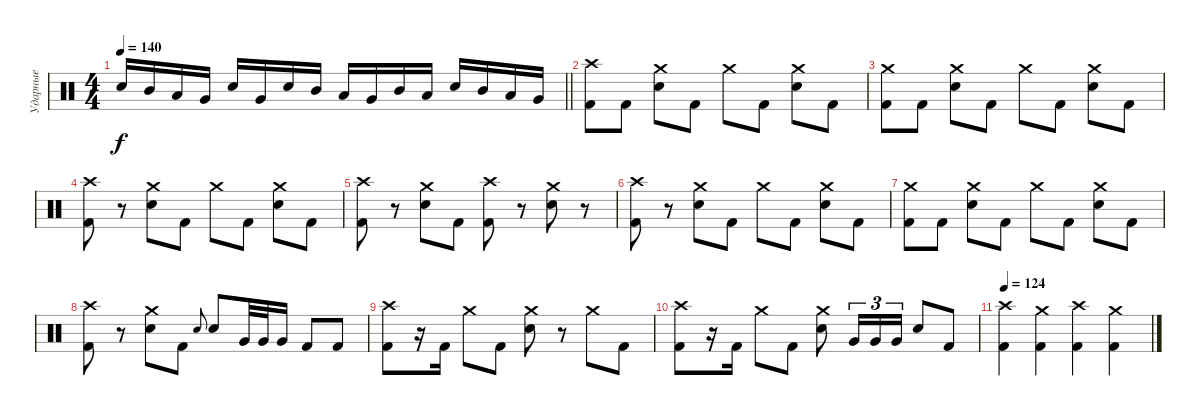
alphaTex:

\track ("Ударные" "Ударные") {instrument percussion}
\staff {score}
\articulation defaults
\ts (4 4)
\tempo 140
\clef neutral
\barLineRight lightlight
\ks c "Snare (hit) 2".16{dy f} "Mid Tom (hit)".16 "Low Tom (hit)".16 "Very Low Tom (hit)".16 "Snare (hit) 2".16 "Very Low Tom (hit)".16 "Snare (hit) 2".16 "Mid Tom (hit)".16 "Low Tom (hit)".16 "Very Low Tom (hit)".16 "Mid Tom (hit)".16 "Low Tom (hit)".16 "Snare (hit) 2".16 "Mid Tom (hit)".16 "Low Tom (hit)".16 "Very Low Tom (hit)".16
|
("Crash high (hit)" "Kick (hit) 2").8 "Kick (hit) 2".8 ("Crash medium (hit)" "Snare (hit) 2").8 "Kick (hit) 2".8 "Crash medium (hit)".8 "Kick (hit) 2".8 ("Crash medium (hit)" "Snare (hit) 2").8 "Kick (hit) 2".8 |
("Crash medium (hit)" "Kick (hit) 2").8 "Kick (hit) 2".8 ("Crash medium (hit)" "Snare (hit) 2").8 "Kick (hit) 2".8 "Crash medium (hit)".8 "Kick (hit) 2".8 ("Crash medium (hit)" "Snare (hit) 2").8 "Kick (hit) 2".8 |
("Crash high (hit)" "Kick (hit) 2").8 r.8 ("Crash medium (hit)" "Snare (hit) 2").8 "Kick (hit) 2".8 "Crash medium (hit)".8 "Kick (hit) 2".8 ("Crash medium (hit)" "Snare (hit) 2").8 "Kick (hit) 2".8 |
("Crash high (hit)" "Kick (hit) 2").8 r.8 ("Crash medium (hit)" "Snare (hit) 2").8 "Kick (hit) 2".8 ("Crash high (hit)" "Kick (hit) 2").8 r.8 ("Crash medium (hit)" "Snare (hit) 2").8 r.8 |
("Crash high (hit)" "Kick (hit) 2").8 r.8 ("Crash medium (hit)" "Snare (hit) 2").8 "Kick (hit) 2".8 "Crash medium (hit)".8 "Kick (hit) 2".8 ("Crash medium (hit)" "Snare (hit) 2").8 "Kick (hit) 2".8 |
("Crash medium (hit)" "Kick (hit) 2").8 "Kick (hit) 2".8 ("Crash medium (hit)" "Snare (hit) 2").8 "Kick (hit) 2".8 "Crash medium (hit)".8 "Kick (hit) 2".8 ("Crash medium (hit)" "Snare (hit) 2").8 "Kick (hit) 2".8 |
("Crash high (hit)" "Kick (hit) 2").8 r.8 ("Crash medium (hit)" "Snare (hit) 2").8 "Kick (hit) 2".8 "Snare (hit) 2".8{gr onbeat} "Snare (hit) 2".8 "Very Low Tom (hit)".32 "Very Low Tom (hit)".32 "Very Low Tom (hit)".16 "Kick (hit) 2".8 "Kick (hit) 2".8 |
("Crash high (hit)" "Kick (hit) 2").8 r.16 "Kick (hit) 2".16 "Crash medium (hit)".8 "Kick (hit) 2".8 ("Crash medium (hit)" "Snare (hit) 2").8 r.8 "Crash medium (hit)".8 "Kick (hit) 2".8 |
("Crash high (hit)" "Kick (hit) 2").8 r.16 "Kick (hit) 2".16 "Crash medium (hit)".8 "Kick (hit) 2".8 ("Crash medium (hit)" "Snare (hit) 2").8 "Very Low Tom (hit)".16{tu (3 2)} "Very Low Tom (hit)".16{tu (3 2)} "Very Low Tom (hit)".16{tu (3 2)} "Snare (hit) 2".8 "Kick (hit) 2".8 |
\tempo 124
("Crash high (hit)" "Kick (hit) 2").4 ("Crash medium (hit)" "Kick (hit) 2").4 ("Crash high (hit)" "Kick (hit) 2").4 ("Crash medium (hit)" "Kick (hit) 2").4
